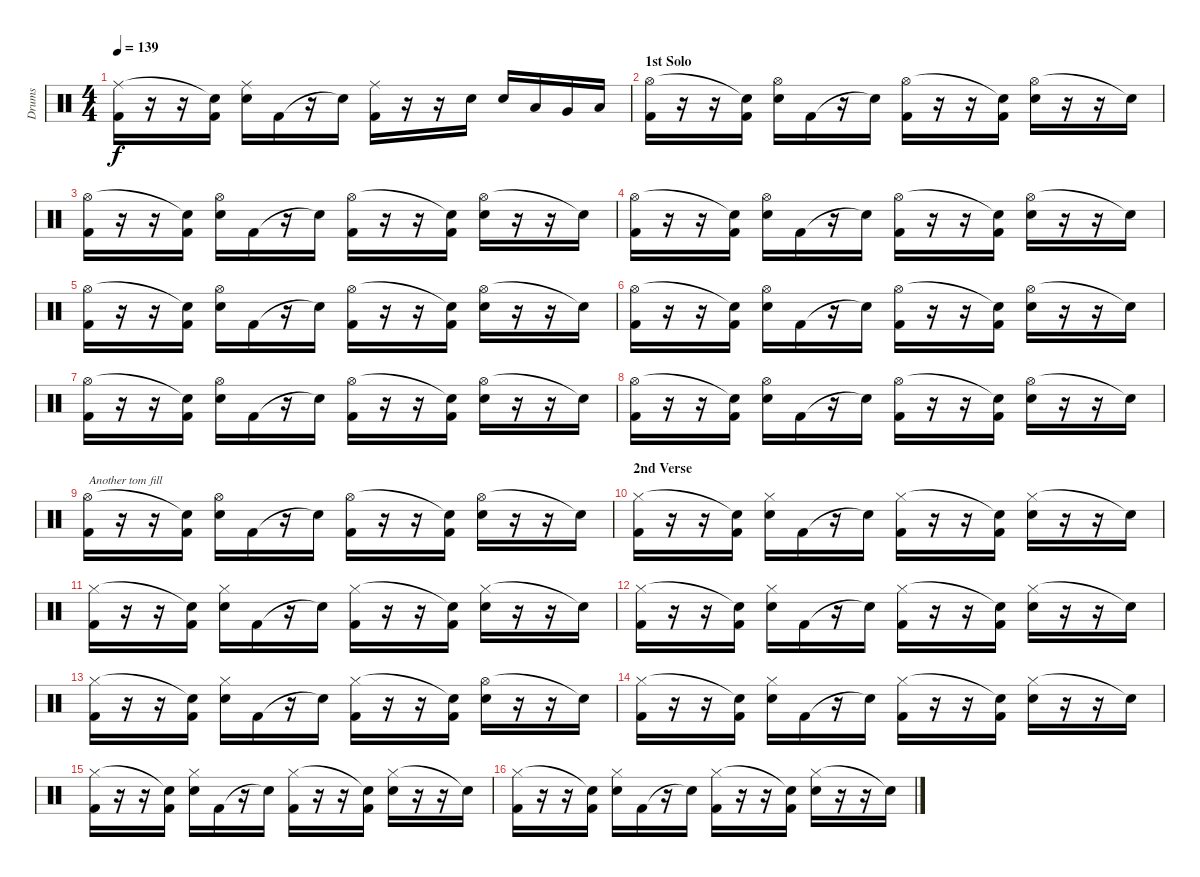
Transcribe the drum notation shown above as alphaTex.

\track ("Drums" "Drums") {instrument percussion}
\staff {score}
\articulation defaults
\ts (4 4)
\tempo 139
\clef neutral
\ks c
("Ride (middle)" "Kick (hit) 2").16{dy f} r.16 r.16 ("Snare (hit)"{t} "Kick (hit) 2").16 ("Ride (middle)" "Snare (hit) 2").16 "Kick (hit) 2".16 r.16 "Snare (hit)"{t}.16 ("Ride (middle)" "Kick (hit) 2").16 r.16 r.16 "Snare (hit) 2".16 "Snare (hit) 2".16 "Low Tom (hit)".16 "Very Low Tom (hit)".16 "Low Floor Tom (hit)".16 |
\section ("" "1st Solo")
("Hi-Hat (open)" "Kick (hit) 2").16 r.16 r.16 ("Snare (hit)"{t} "Kick (hit) 2").16 ("Hi-Hat (open)" "Snare (hit) 2").16 "Kick (hit) 2".16 r.16 "Snare (hit)"{t}.16 ("Hi-Hat (open)" "Kick (hit) 2").16 r.16 r.16 ("Snare (hit)"{t} "Kick (hit) 2").16 ("Hi-Hat (open)" "Snare (hit) 2").16 r.16 r.16 "Snare (hit)"{t}.16 |
("Hi-Hat (open)" "Kick (hit) 2").16 r.16 r.16 ("Snare (hit)"{t} "Kick (hit) 2").16 ("Hi-Hat (open)" "Snare (hit) 2").16 "Kick (hit) 2".16 r.16 "Snare (hit)"{t}.16 ("Hi-Hat (open)" "Kick (hit) 2").16 r.16 r.16 ("Snare (hit)"{t} "Kick (hit) 2").16 ("Hi-Hat (open)" "Snare (hit) 2").16 r.16 r.16 "Snare (hit)"{t}.16 |
("Hi-Hat (open)" "Kick (hit) 2").16 r.16 r.16 ("Snare (hit)"{t} "Kick (hit) 2").16 ("Hi-Hat (open)" "Snare (hit) 2").16 "Kick (hit) 2".16 r.16 "Snare (hit)"{t}.16 ("Hi-Hat (open)" "Kick (hit) 2").16 r.16 r.16 ("Snare (hit)"{t} "Kick (hit) 2").16 ("Hi-Hat (open)" "Snare (hit) 2").16 r.16 r.16 "Snare (hit)"{t}.16 |
("Hi-Hat (open)" "Kick (hit) 2").16 r.16 r.16 ("Snare (hit)"{t} "Kick (hit) 2").16 ("Hi-Hat (open)" "Snare (hit) 2").16 "Kick (hit) 2".16 r.16 "Snare (hit)"{t}.16 ("Hi-Hat (open)" "Kick (hit) 2").16 r.16 r.16 ("Snare (hit)"{t} "Kick (hit) 2").16 ("Hi-Hat (open)" "Snare (hit) 2").16 r.16 r.16 "Snare (hit)"{t}.16 |
("Hi-Hat (open)" "Kick (hit) 2").16 r.16 r.16 ("Snare (hit)"{t} "Kick (hit) 2").16 ("Hi-Hat (open)" "Snare (hit) 2").16 "Kick (hit) 2".16 r.16 "Snare (hit)"{t}.16 ("Hi-Hat (open)" "Kick (hit) 2").16 r.16 r.16 ("Snare (hit)"{t} "Kick (hit) 2").16 ("Hi-Hat (open)" "Snare (hit) 2").16 r.16 r.16 "Snare (hit)"{t}.16 |
("Hi-Hat (open)" "Kick (hit) 2").16 r.16 r.16 ("Snare (hit)"{t} "Kick (hit) 2").16 ("Hi-Hat (open)" "Snare (hit) 2").16 "Kick (hit) 2".16 r.16 "Snare (hit)"{t}.16 ("Hi-Hat (open)" "Kick (hit) 2").16 r.16 r.16 ("Snare (hit)"{t} "Kick (hit) 2").16 ("Hi-Hat (open)" "Snare (hit) 2").16 r.16 r.16 "Snare (hit)"{t}.16 |
("Hi-Hat (open)" "Kick (hit) 2").16 r.16 r.16 ("Snare (hit)"{t} "Kick (hit) 2").16 ("Hi-Hat (open)" "Snare (hit) 2").16 "Kick (hit) 2".16 r.16 "Snare (hit)"{t}.16 ("Hi-Hat (open)" "Kick (hit) 2").16 r.16 r.16 ("Snare (hit)"{t} "Kick (hit) 2").16 ("Hi-Hat (open)" "Snare (hit) 2").16 r.16 r.16 "Snare (hit)"{t}.16 |
("Hi-Hat (open)" "Kick (hit) 2").16{txt "Another tom fill"} r.16 r.16 ("Snare (hit)"{t} "Kick (hit) 2").16 ("Hi-Hat (open)" "Snare (hit) 2").16 "Kick (hit) 2".16 r.16 "Snare (hit)"{t}.16 ("Hi-Hat (open)" "Kick (hit) 2").16 r.16 r.16 ("Snare (hit)"{t} "Kick (hit) 2").16 ("Hi-Hat (open)" "Snare (hit) 2").16 r.16 r.16 "Snare (hit)"{t}.16 |
\section ("" "2nd Verse")
("Hi-Hat (closed)" "Kick (hit) 2").16 r.16 r.16 ("Snare (hit)"{t} "Kick (hit) 2").16 ("Hi-Hat (closed)" "Snare (hit) 2").16 "Kick (hit) 2".16 r.16 "Snare (hit)"{t}.16 ("Hi-Hat (closed)" "Kick (hit) 2").16 r.16 r.16 ("Snare (hit)"{t} "Kick (hit) 2").16 ("Hi-Hat (closed)" "Snare (hit) 2").16 r.16 r.16 "Snare (hit)"{t}.16 |
("Hi-Hat (closed)" "Kick (hit) 2").16 r.16 r.16 ("Snare (hit)"{t} "Kick (hit) 2").16 ("Hi-Hat (closed)" "Snare (hit) 2").16 "Kick (hit) 2".16 r.16 "Snare (hit)"{t}.16 ("Hi-Hat (closed)" "Kick (hit) 2").16 r.16 r.16 ("Snare (hit)"{t} "Kick (hit) 2").16 ("Hi-Hat (closed)" "Snare (hit) 2").16 r.16 r.16 "Snare (hit)"{t}.16 |
("Hi-Hat (closed)" "Kick (hit) 2").16 r.16 r.16 ("Snare (hit)"{t} "Kick (hit) 2").16 ("Hi-Hat (closed)" "Snare (hit) 2").16 "Kick (hit) 2".16 r.16 "Snare (hit)"{t}.16 ("Hi-Hat (closed)" "Kick (hit) 2").16 r.16 r.16 ("Snare (hit)"{t} "Kick (hit) 2").16 ("Hi-Hat (closed)" "Snare (hit) 2").16 r.16 r.16 "Snare (hit)"{t}.16 |
("Hi-Hat (closed)" "Kick (hit) 2").16 r.16 r.16 ("Snare (hit)"{t} "Kick (hit) 2").16 ("Hi-Hat (closed)" "Snare (hit) 2").16 "Kick (hit) 2".16 r.16 "Snare (hit)"{t}.16 ("Hi-Hat (closed)" "Kick (hit) 2").16 r.16 r.16 ("Snare (hit)"{t} "Kick (hit) 2").16 ("Hi-Hat (open)" "Snare (hit) 2").16 r.16 r.16 "Snare (hit)"{t}.16 |
("Hi-Hat (closed)" "Kick (hit) 2").16 r.16 r.16 ("Snare (hit)"{t} "Kick (hit) 2").16 ("Hi-Hat (closed)" "Snare (hit) 2").16 "Kick (hit) 2".16 r.16 "Snare (hit)"{t}.16 ("Hi-Hat (closed)" "Kick (hit) 2").16 r.16 r.16 ("Snare (hit)"{t} "Kick (hit) 2").16 ("Hi-Hat (closed)" "Snare (hit) 2").16 r.16 r.16 "Snare (hit)"{t}.16 |
("Hi-Hat (closed)" "Kick (hit) 2").16 r.16 r.16 ("Snare (hit)"{t} "Kick (hit) 2").16 ("Hi-Hat (closed)" "Snare (hit) 2").16 "Kick (hit) 2".16 r.16 "Snare (hit)"{t}.16 ("Hi-Hat (closed)" "Kick (hit) 2").16 r.16 r.16 ("Snare (hit)"{t} "Kick (hit) 2").16 ("Hi-Hat (closed)" "Snare (hit) 2").16 r.16 r.16 "Snare (hit)"{t}.16 |
("Hi-Hat (closed)" "Kick (hit) 2").16 r.16 r.16 ("Snare (hit)"{t} "Kick (hit) 2").16 ("Hi-Hat (closed)" "Snare (hit) 2").16 "Kick (hit) 2".16 r.16 "Snare (hit)"{t}.16 ("Hi-Hat (closed)" "Kick (hit) 2").16 r.16 r.16 ("Snare (hit)"{t} "Kick (hit) 2").16 ("Hi-Hat (closed)" "Snare (hit) 2").16 r.16 r.16 "Snare (hit)"{t}.16
